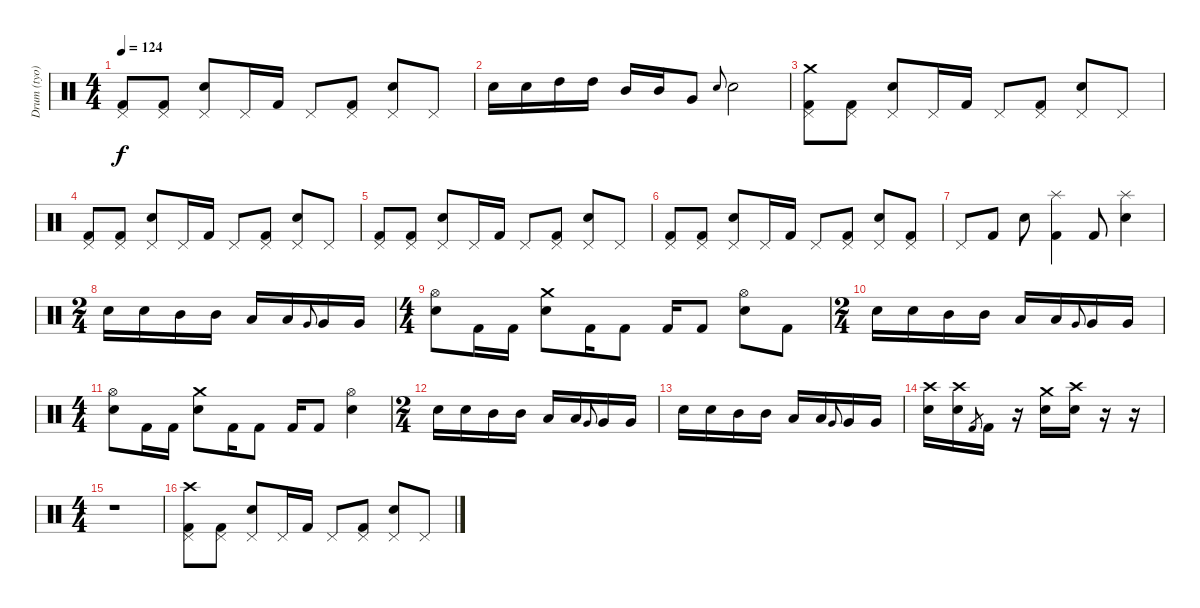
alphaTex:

\track ("Drum (tyo)" "Drum (tyo)") {instrument percussion}
\staff {score}
\articulation defaults
\ts (4 4)
\tempo 124
\clef neutral
\ks c
("Kick (hit) 2" "Pedal Hi-Hat (hit)").8{dy f} ("Kick (hit) 2" "Pedal Hi-Hat (hit)").8 ("Electric Snare (hit)" "Pedal Hi-Hat (hit)").8 "Pedal Hi-Hat (hit)".16 "Kick (hit) 2".16 "Pedal Hi-Hat (hit)".8 ("Kick (hit) 2" "Pedal Hi-Hat (hit)").8 ("Electric Snare (hit)" "Pedal Hi-Hat (hit)").8 "Pedal Hi-Hat (hit)".8 |
"Electric Snare (hit)".16 "Electric Snare (hit)".16 "High Tom (hit)".16 "High Tom (hit)".16 "Mid Tom (hit)".16 "Mid Tom (hit)".16 "Very Low Tom (hit)".8 "Snare (hit) 2".8{gr onbeat} "Snare (hit) 2".2 |
("Kick (hit) 2" "Pedal Hi-Hat (hit)" "Crash medium (hit)").8 ("Kick (hit) 2" "Pedal Hi-Hat (hit)").8 ("Electric Snare (hit)" "Pedal Hi-Hat (hit)").8 "Pedal Hi-Hat (hit)".16 "Kick (hit) 2".16 "Pedal Hi-Hat (hit)".8 ("Kick (hit) 2" "Pedal Hi-Hat (hit)").8 ("Electric Snare (hit)" "Pedal Hi-Hat (hit)").8 "Pedal Hi-Hat (hit)".8 |
("Kick (hit) 2" "Pedal Hi-Hat (hit)").8 ("Kick (hit) 2" "Pedal Hi-Hat (hit)").8 ("Electric Snare (hit)" "Pedal Hi-Hat (hit)").8 "Pedal Hi-Hat (hit)".16 "Kick (hit) 2".16 "Pedal Hi-Hat (hit)".8 ("Kick (hit) 2" "Pedal Hi-Hat (hit)").8 ("Electric Snare (hit)" "Pedal Hi-Hat (hit)").8 "Pedal Hi-Hat (hit)".8 |
("Kick (hit) 2" "Pedal Hi-Hat (hit)").8 ("Kick (hit) 2" "Pedal Hi-Hat (hit)").8 ("Electric Snare (hit)" "Pedal Hi-Hat (hit)").8 "Pedal Hi-Hat (hit)".16 "Kick (hit) 2".16 "Pedal Hi-Hat (hit)".8 ("Kick (hit) 2" "Pedal Hi-Hat (hit)").8 ("Electric Snare (hit)" "Pedal Hi-Hat (hit)").8 "Pedal Hi-Hat (hit)".8 |
("Kick (hit) 2" "Pedal Hi-Hat (hit)").8 ("Kick (hit) 2" "Pedal Hi-Hat (hit)").8 ("Electric Snare (hit)" "Pedal Hi-Hat (hit)").8 "Pedal Hi-Hat (hit)".16 "Kick (hit) 2".16 "Pedal Hi-Hat (hit)".8 ("Kick (hit) 2" "Pedal Hi-Hat (hit)").8 ("Electric Snare (hit)" "Pedal Hi-Hat (hit)").8 ("Pedal Hi-Hat (hit)" "Kick (hit) 2").8 |
"Pedal Hi-Hat (hit)".8 "Kick (hit) 2".8 "Electric Snare (hit)".8 ("Kick (hit) 2" "Splash (hit)").4 "Kick (hit) 2".8 ("Electric Snare (hit)" "Splash (hit)").4 |
\ts (2 4)
"Electric Snare (hit)".16 "Electric Snare (hit)".16 "Mid Tom (hit)".16 "Mid Tom (hit)".16 "Low Tom (hit)".16 "Low Tom (hit)".16 "Very Low Tom (hit)".8{gr onbeat} "Very Low Tom (hit)".16 "Very Low Tom (hit)".16 |
\ts (4 4)
("Electric Snare (hit)" "Hi-Hat (open)").8 "Kick (hit) 2".16 "Kick (hit) 2".16 ("Electric Snare (hit)" "Crash medium (hit)").8 "Kick (hit) 2".16 "Kick (hit) 2".8 "Kick (hit) 2".16 "Kick (hit) 2".8 ("Electric Snare (hit)" "Hi-Hat (open)").8 "Kick (hit) 2".8 |
\ts (2 4)
"Electric Snare (hit)".16 "Electric Snare (hit)".16 "Mid Tom (hit)".16 "Mid Tom (hit)".16 "Low Tom (hit)".16 "Low Tom (hit)".16 "Very Low Tom (hit)".8{gr onbeat} "Very Low Tom (hit)".16 "Very Low Tom (hit)".16 |
\ts (4 4)
("Electric Snare (hit)" "Hi-Hat (open)").8 "Kick (hit) 2".16 "Kick (hit) 2".16 ("Electric Snare (hit)" "Crash medium (hit)").8 "Kick (hit) 2".16 "Kick (hit) 2".8 "Kick (hit) 2".16 "Kick (hit) 2".8 ("Electric Snare (hit)" "Hi-Hat (open)").4 |
\ts (2 4)
"Electric Snare (hit)".16 "Electric Snare (hit)".16 "Mid Tom (hit)".16 "Mid Tom (hit)".16 "Low Tom (hit)".16 "Low Tom (hit)".16 "Very Low Tom (hit)".8{gr onbeat} "Very Low Tom (hit)".16 "Very Low Tom (hit)".16 |
"Electric Snare (hit)".16 "Electric Snare (hit)".16 "Mid Tom (hit)".16 "Mid Tom (hit)".16 "Low Tom (hit)".16 "Low Tom (hit)".16 "Very Low Tom (hit)".8{gr onbeat} "Very Low Tom (hit)".16 "Very Low Tom (hit)".16 |
("Electric Snare (hit)" "Crash high (hit)").16 ("Electric Snare (hit)" "Crash high (hit)").16 "Kick (hit) 2".8{gr} "Kick (hit) 2".16 r.16 ("Electric Snare (hit)" "Crash medium (hit)").16 ("Electric Snare (hit)" "Crash high (hit)").16 r.16 r.16 |
\ts (4 4)
r.1 |
("Kick (hit) 2" "Pedal Hi-Hat (hit)" "Crash high (hit)").8 ("Kick (hit) 2" "Pedal Hi-Hat (hit)").8 ("Electric Snare (hit)" "Pedal Hi-Hat (hit)").8 "Pedal Hi-Hat (hit)".16 "Kick (hit) 2".16 "Pedal Hi-Hat (hit)".8 ("Kick (hit) 2" "Pedal Hi-Hat (hit)").8 ("Electric Snare (hit)" "Pedal Hi-Hat (hit)").8 "Pedal Hi-Hat (hit)".8
